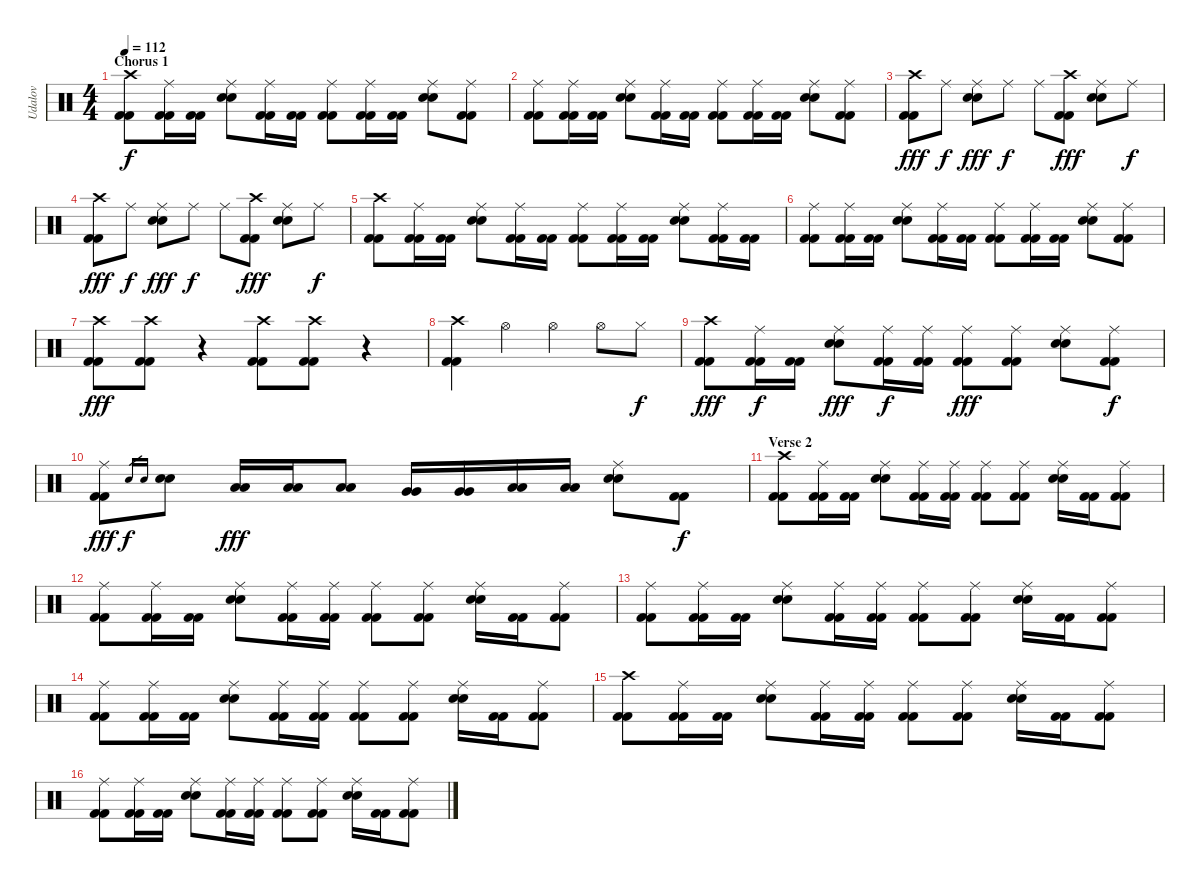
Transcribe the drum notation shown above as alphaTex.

\track ("Udalov" "Udalov") {instrument percussion}
\staff {score}
\articulation defaults
\ts (4 4)
\section ("" "Chorus 1")
\tempo 112
\clef neutral
\ks c
("Crash high (hit)" "Kick (hit) 2" "Kick (hit) 2").8{dy f} ("Ride (middle)" "Kick (hit) 2" "Kick (hit) 2").16 ("Kick (hit) 2" "Kick (hit) 2").16 ("Ride (middle)" "Electric Snare (hit)" "Electric Snare (hit)").8 ("Ride (middle)" "Kick (hit) 2" "Kick (hit) 2").16 ("Kick (hit) 2" "Kick (hit) 2").16 ("Ride (middle)" "Kick (hit) 2" "Kick (hit) 2").8 ("Ride (middle)" "Kick (hit) 2" "Kick (hit) 2").16 ("Kick (hit) 2" "Kick (hit) 2").16 ("Ride (middle)" "Electric Snare (hit)" "Electric Snare (hit)").8 ("Ride (middle)" "Kick (hit) 2" "Kick (hit) 2").8 |
("Ride (middle)" "Kick (hit) 2" "Kick (hit) 2").8 ("Ride (middle)" "Kick (hit) 2" "Kick (hit) 2").16 ("Kick (hit) 2" "Kick (hit) 2").16 ("Ride (middle)" "Electric Snare (hit)" "Electric Snare (hit)").8 ("Ride (middle)" "Kick (hit) 2" "Kick (hit) 2").16 ("Kick (hit) 2" "Kick (hit) 2").16 ("Ride (middle)" "Kick (hit) 2" "Kick (hit) 2").8 ("Ride (middle)" "Kick (hit) 2" "Kick (hit) 2").16 ("Kick (hit) 2" "Kick (hit) 2").16 ("Ride (middle)" "Electric Snare (hit)" "Electric Snare (hit)").8 ("Ride (middle)" "Kick (hit) 2" "Kick (hit) 2").8 |
("Crash high (hit)" "Kick (hit) 2" "Kick (hit) 2").8{dy fff} "Ride (middle)".8{dy f} ("Ride (middle)" "Electric Snare (hit)" "Electric Snare (hit)").8{dy fff} "Ride (middle)".8{dy f} "Ride (middle)".8 ("Crash high (hit)" "Kick (hit) 2" "Kick (hit) 2").8{dy fff} ("Ride (middle)" "Electric Snare (hit)" "Electric Snare (hit)").8 "Ride (middle)".8{dy f} |
("Crash high (hit)" "Kick (hit) 2" "Kick (hit) 2").8{dy fff} "Ride (middle)".8{dy f} ("Ride (middle)" "Electric Snare (hit)" "Electric Snare (hit)").8{dy fff} "Ride (middle)".8{dy f} "Ride (middle)".8 ("Crash high (hit)" "Kick (hit) 2" "Kick (hit) 2").8{dy fff} ("Ride (middle)" "Electric Snare (hit)" "Electric Snare (hit)").8 "Ride (middle)".8{dy f} |
("Crash high (hit)" "Kick (hit) 2" "Kick (hit) 2").8 ("Ride (middle)" "Kick (hit) 2" "Kick (hit) 2").16 ("Kick (hit) 2" "Kick (hit) 2").16 ("Ride (middle)" "Electric Snare (hit)" "Electric Snare (hit)").8 ("Ride (middle)" "Kick (hit) 2" "Kick (hit) 2").16 ("Kick (hit) 2" "Kick (hit) 2").16 ("Ride (middle)" "Kick (hit) 2" "Kick (hit) 2").8 ("Ride (middle)" "Kick (hit) 2" "Kick (hit) 2").16 ("Kick (hit) 2" "Kick (hit) 2").16 ("Ride (middle)" "Electric Snare (hit)" "Electric Snare (hit)").8 ("Ride (middle)" "Kick (hit) 2" "Kick (hit) 2").16 ("Kick (hit) 2" "Kick (hit) 2").16 |
("Ride (middle)" "Kick (hit) 2" "Kick (hit) 2").8 ("Ride (middle)" "Kick (hit) 2" "Kick (hit) 2").16 ("Kick (hit) 2" "Kick (hit) 2").16 ("Ride (middle)" "Electric Snare (hit)" "Electric Snare (hit)").8 ("Ride (middle)" "Kick (hit) 2" "Kick (hit) 2").16 ("Kick (hit) 2" "Kick (hit) 2").16 ("Ride (middle)" "Kick (hit) 2" "Kick (hit) 2").8 ("Ride (middle)" "Kick (hit) 2" "Kick (hit) 2").16 ("Kick (hit) 2" "Kick (hit) 2").16 ("Ride (middle)" "Electric Snare (hit)" "Electric Snare (hit)").8 ("Ride (middle)" "Kick (hit) 2" "Kick (hit) 2").8 |
("Crash high (hit)" "Kick (hit) 2" "Kick (hit) 2").8{dy fff} ("Crash high (hit)" "Kick (hit) 2" "Kick (hit) 2").8 r.4 ("Crash high (hit)" "Kick (hit) 2" "Kick (hit) 2").8 ("Crash high (hit)" "Kick (hit) 2" "Kick (hit) 2").8 r.4 |
("Crash high (hit)" "Kick (hit) 2" "Kick (hit) 2").4 "Hi-Hat (open)".4 "Hi-Hat (open)".4 "Hi-Hat (open)".8 "Hi-Hat (closed)".8{dy f} |
("Crash high (hit)" "Kick (hit) 2" "Kick (hit) 2").8{dy fff} ("Ride (middle)" "Kick (hit) 2" "Kick (hit) 2").16{dy f} ("Kick (hit) 2" "Kick (hit) 2").16 ("Ride (middle)" "Electric Snare (hit)" "Electric Snare (hit)").8{dy fff} ("Ride (middle)" "Kick (hit) 2" "Kick (hit) 2").16{dy f} ("Ride (middle)" "Kick (hit) 2" "Kick (hit) 2").16 ("Ride (middle)" "Kick (hit) 2" "Kick (hit) 2").8{dy fff} ("Ride (middle)" "Kick (hit) 2" "Kick (hit) 2").8 ("Ride (middle)" "Electric Snare (hit)" "Electric Snare (hit)").8 ("Ride (middle)" "Kick (hit) 2" "Kick (hit) 2").8{dy f} |
("Ride (middle)" "Kick (hit) 2" "Kick (hit) 2").8{dy fff} "Electric Snare (hit)".16{gr dy f} "Electric Snare (hit)".16{gr} ("Electric Snare (hit)" "Electric Snare (hit)").8 ("Low Tom (hit)" "Low Tom (hit)").16{dy fff} ("Low Tom (hit)" "Low Tom (hit)").16 ("Low Tom (hit)" "Low Tom (hit)").8 ("Very Low Tom (hit)" "Very Low Tom (hit)").16 ("Very Low Tom (hit)" "Very Low Tom (hit)").16 ("Low Tom (hit)" "Low Tom (hit)").16 ("Low Tom (hit)" "Low Tom (hit)").16 ("Ride (middle)" "Electric Snare (hit)" "Electric Snare (hit)").8 ("Kick (hit) 2" "Kick (hit) 2").8{dy f} |
\section ("" "Verse 2")
("Crash high (hit)" "Kick (hit) 2" "Kick (hit) 2").8 ("Ride (middle)" "Kick (hit) 2" "Kick (hit) 2").16 ("Kick (hit) 2" "Kick (hit) 2").16 ("Ride (middle)" "Electric Snare (hit)" "Electric Snare (hit)").8 ("Ride (middle)" "Kick (hit) 2" "Kick (hit) 2").16 ("Ride (middle)" "Kick (hit) 2" "Kick (hit) 2").16 ("Ride (middle)" "Kick (hit) 2" "Kick (hit) 2").8 ("Ride (middle)" "Kick (hit) 2" "Kick (hit) 2").8 ("Ride (middle)" "Electric Snare (hit)" "Electric Snare (hit)").16 ("Kick (hit) 2" "Kick (hit) 2").16 ("Ride (middle)" "Kick (hit) 2" "Kick (hit) 2").8 |
("Ride (middle)" "Kick (hit) 2" "Kick (hit) 2").8 ("Ride (middle)" "Kick (hit) 2" "Kick (hit) 2").16 ("Kick (hit) 2" "Kick (hit) 2").16 ("Ride (middle)" "Electric Snare (hit)" "Electric Snare (hit)").8 ("Ride (middle)" "Kick (hit) 2" "Kick (hit) 2").16 ("Ride (middle)" "Kick (hit) 2" "Kick (hit) 2").16 ("Ride (middle)" "Kick (hit) 2" "Kick (hit) 2").8 ("Ride (middle)" "Kick (hit) 2" "Kick (hit) 2").8 ("Ride (middle)" "Electric Snare (hit)" "Electric Snare (hit)").16 ("Kick (hit) 2" "Kick (hit) 2").16 ("Ride (middle)" "Kick (hit) 2" "Kick (hit) 2").8 |
("Ride (middle)" "Kick (hit) 2" "Kick (hit) 2").8 ("Ride (middle)" "Kick (hit) 2" "Kick (hit) 2").16 ("Kick (hit) 2" "Kick (hit) 2").16 ("Ride (middle)" "Electric Snare (hit)" "Electric Snare (hit)").8 ("Ride (middle)" "Kick (hit) 2" "Kick (hit) 2").16 ("Ride (middle)" "Kick (hit) 2" "Kick (hit) 2").16 ("Ride (middle)" "Kick (hit) 2" "Kick (hit) 2").8 ("Ride (middle)" "Kick (hit) 2" "Kick (hit) 2").8 ("Ride (middle)" "Electric Snare (hit)" "Electric Snare (hit)").16 ("Kick (hit) 2" "Kick (hit) 2").16 ("Ride (middle)" "Kick (hit) 2" "Kick (hit) 2").8 |
("Ride (middle)" "Kick (hit) 2" "Kick (hit) 2").8 ("Ride (middle)" "Kick (hit) 2" "Kick (hit) 2").16 ("Kick (hit) 2" "Kick (hit) 2").16 ("Ride (middle)" "Electric Snare (hit)" "Electric Snare (hit)").8 ("Ride (middle)" "Kick (hit) 2" "Kick (hit) 2").16 ("Ride (middle)" "Kick (hit) 2" "Kick (hit) 2").16 ("Ride (middle)" "Kick (hit) 2" "Kick (hit) 2").8 ("Ride (middle)" "Kick (hit) 2" "Kick (hit) 2").8 ("Ride (middle)" "Electric Snare (hit)" "Electric Snare (hit)").16 ("Kick (hit) 2" "Kick (hit) 2").16 ("Ride (middle)" "Kick (hit) 2" "Kick (hit) 2").8 |
("Crash high (hit)" "Kick (hit) 2" "Kick (hit) 2").8 ("Ride (middle)" "Kick (hit) 2" "Kick (hit) 2").16 ("Kick (hit) 2" "Kick (hit) 2").16 ("Ride (middle)" "Electric Snare (hit)" "Electric Snare (hit)").8 ("Ride (middle)" "Kick (hit) 2" "Kick (hit) 2").16 ("Ride (middle)" "Kick (hit) 2" "Kick (hit) 2").16 ("Ride (middle)" "Kick (hit) 2" "Kick (hit) 2").8 ("Ride (middle)" "Kick (hit) 2" "Kick (hit) 2").8 ("Ride (middle)" "Electric Snare (hit)" "Electric Snare (hit)").16 ("Kick (hit) 2" "Kick (hit) 2").16 ("Ride (middle)" "Kick (hit) 2" "Kick (hit) 2").8 |
("Ride (middle)" "Kick (hit) 2" "Kick (hit) 2").8 ("Ride (middle)" "Kick (hit) 2" "Kick (hit) 2").16 ("Kick (hit) 2" "Kick (hit) 2").16 ("Ride (middle)" "Electric Snare (hit)" "Electric Snare (hit)").8 ("Ride (middle)" "Kick (hit) 2" "Kick (hit) 2").16 ("Ride (middle)" "Kick (hit) 2" "Kick (hit) 2").16 ("Ride (middle)" "Kick (hit) 2" "Kick (hit) 2").8 ("Ride (middle)" "Kick (hit) 2" "Kick (hit) 2").8 ("Ride (middle)" "Electric Snare (hit)" "Electric Snare (hit)").16 ("Kick (hit) 2" "Kick (hit) 2").16 ("Ride (middle)" "Kick (hit) 2" "Kick (hit) 2").8
